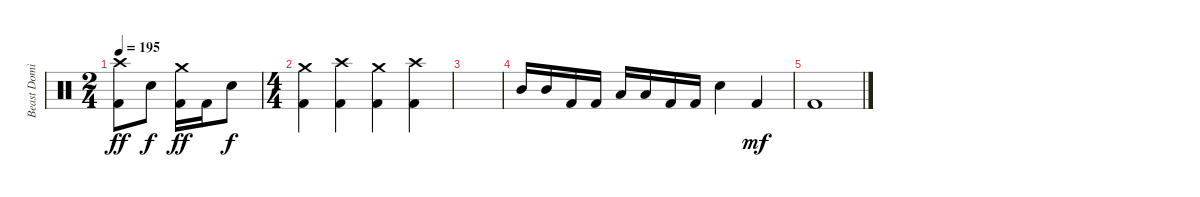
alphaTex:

\track ("Beast Dominator" "Beast Domi") {instrument percussion}
\staff {score}
\articulation defaults
\ts (2 4)
\tempo 195
\clef neutral
\ks c
("Crash high (hit)" "Kick (hit) 2").8{dy ff} "Snare (hit) 2".8{dy f} ("Crash medium (hit)" "Kick (hit) 2").16{dy ff} "Kick (hit) 2".16 "Snare (hit) 2".8{dy f} |
\ts (4 4)
("Crash medium (hit)" "Kick (hit) 2").4 ("Crash high (hit)" "Kick (hit) 2").4 ("Crash medium (hit)" "Kick (hit) 2").4 ("Crash high (hit)" "Kick (hit) 2").4 |
|
"Mid Tom (hit)".16 "Mid Tom (hit)".16 "Kick (hit) 2".16 "Kick (hit) 2".16 "Low Tom (hit)".16 "Low Tom (hit)".16 "Kick (hit) 2".16 "Kick (hit) 2".16 "Snare (hit) 2".4 "Kick (hit) 2".4{dy mf} |
"Kick (hit) 2".1
